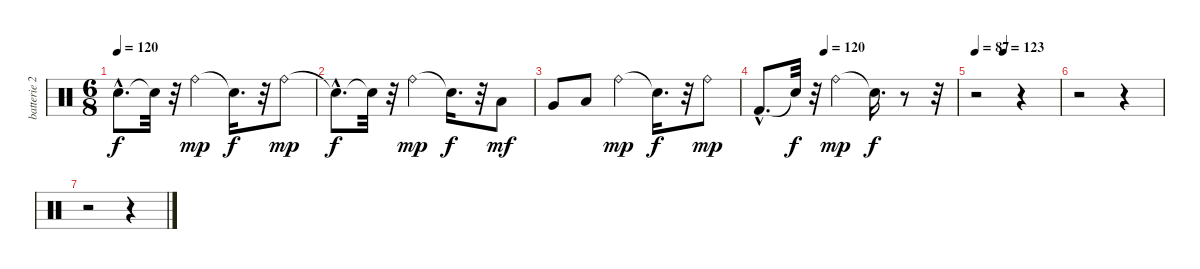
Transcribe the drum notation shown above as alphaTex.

\track ("batterie 2" "batterie 2") {instrument percussion}
\staff {score}
\articulation defaults
\ts (6 8)
\tempo 120
\clef neutral
\ks c "Snare (hit)"{hac t}.8{d dy f} "Snare (hit)"{t}.32
r.32 "Ride (bell)".4{dy mp} "Snare (hit)"{t}.16{d dy f} r.32 "Ride (bell)".8{dy mp} |
"Snare (hit)"{hac t}.8{d dy f} "Snare (hit)"{t}.32 r.32 "Ride (bell)".4{dy mp} "Snare (hit)"{t}.16{d dy f} r.32 "Low Tom (hit)".8{dy mf} |
"Very Low Tom (hit)".8 "Low Floor Tom (hit)".8 "Ride (bell)".4{dy mp} "Snare (hit)"{t}.16{d dy f} r.32 "Ride (bell)".8{dy mp} |
\tempo (120 0.3333333333333333)
"Kick (hit) 2"{hac}.8{d} "Snare (hit)"{t}.32{dy f} r.32 "Ride (bell)".4{dy mp} "Snare (hit)"{t}.16{d dy f} r.8 r.32 |
\tempo 87
\tempo (123 0.3333333333333333)
r.2 r.4 |
r.2 r.4 |
r.2 r.4
